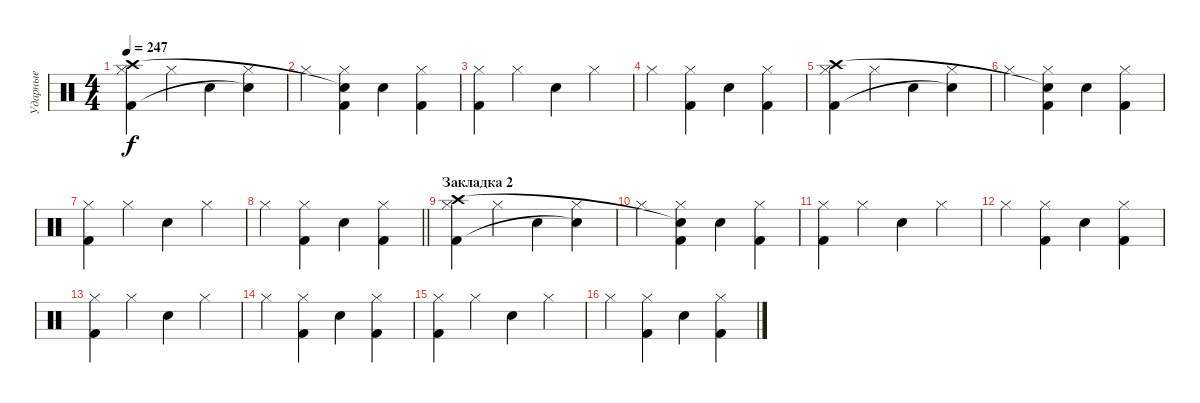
\track ("Ударные" "Ударные") {instrument percussion}
\staff {score}
\articulation defaults
\ts (4 4)
\tempo 247
\clef neutral
\ks c
("Hi-Hat (closed)" "Kick (hit) 2" "Crash high (hit)").4{dy f} "Hi-Hat (closed)".4 "Snare (hit) 2".4 ("Hi-Hat (closed)" "Snare (hit)"{t}).4 |
"Hi-Hat (closed)".4 ("Hi-Hat (closed)" "Kick (hit) 2" "Snare (hit)"{t}).4 "Snare (hit) 2".4 ("Hi-Hat (closed)" "Kick (hit) 2").4 |
("Hi-Hat (closed)" "Kick (hit) 2").4 "Hi-Hat (closed)".4 "Snare (hit) 2".4 "Hi-Hat (closed)".4 |
"Hi-Hat (closed)".4 ("Hi-Hat (closed)" "Kick (hit) 2").4 "Snare (hit) 2".4 ("Hi-Hat (closed)" "Kick (hit) 2").4 |
("Hi-Hat (closed)" "Kick (hit) 2" "Crash high (hit)").4 "Hi-Hat (closed)".4 "Snare (hit) 2".4 ("Hi-Hat (closed)" "Snare (hit)"{t}).4 |
"Hi-Hat (closed)".4 ("Hi-Hat (closed)" "Kick (hit) 2" "Snare (hit)"{t}).4 "Snare (hit) 2".4 ("Hi-Hat (closed)" "Kick (hit) 2").4 |
("Hi-Hat (closed)" "Kick (hit) 2").4 "Hi-Hat (closed)".4 "Snare (hit) 2".4 "Hi-Hat (closed)".4 |
\barLineRight lightlight "Hi-Hat (closed)".4
("Hi-Hat (closed)" "Kick (hit) 2").4 "Snare (hit) 2".4 ("Hi-Hat (closed)" "Kick (hit) 2").4 |
\section ("" "Закладка 2")
("Hi-Hat (closed)" "Kick (hit) 2" "Crash high (hit)").4 "Hi-Hat (closed)".4 "Snare (hit) 2".4 ("Hi-Hat (closed)" "Snare (hit)"{t}).4 |
"Hi-Hat (closed)".4 ("Hi-Hat (closed)" "Kick (hit) 2" "Snare (hit)"{t}).4 "Snare (hit) 2".4 ("Hi-Hat (closed)" "Kick (hit) 2").4 |
("Hi-Hat (closed)" "Kick (hit) 2").4 "Hi-Hat (closed)".4 "Snare (hit) 2".4 "Hi-Hat (closed)".4 |
"Hi-Hat (closed)".4 ("Hi-Hat (closed)" "Kick (hit) 2").4 "Snare (hit) 2".4 ("Hi-Hat (closed)" "Kick (hit) 2").4 |
("Hi-Hat (closed)" "Kick (hit) 2").4 "Hi-Hat (closed)".4 "Snare (hit) 2".4 "Hi-Hat (closed)".4 |
"Hi-Hat (closed)".4 ("Hi-Hat (closed)" "Kick (hit) 2").4 "Snare (hit) 2".4 ("Hi-Hat (closed)" "Kick (hit) 2").4 |
("Hi-Hat (closed)" "Kick (hit) 2").4 "Hi-Hat (closed)".4 "Snare (hit) 2".4 "Hi-Hat (closed)".4 |
"Hi-Hat (closed)".4 ("Hi-Hat (closed)" "Kick (hit) 2").4 "Snare (hit) 2".4 ("Hi-Hat (closed)" "Kick (hit) 2").4
